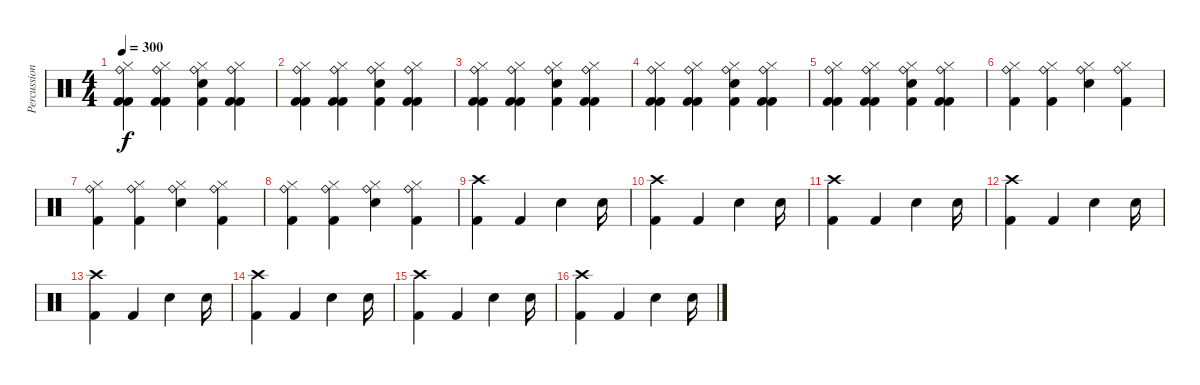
\track ("Percussion" "Percussion") {instrument percussion}
\staff {score}
\articulation defaults
\ts (4 4)
\tempo 300
\clef neutral
\ks c
("Ride (bell)" "Hi-Hat (closed)" "Kick (hit) 2" "Kick (hit) 2").4{dy f} ("Ride (bell)" "Hi-Hat (closed)" "Kick (hit) 2" "Kick (hit) 2").4 ("Ride (bell)" "Hi-Hat (closed)" "Kick (hit) 2" "Snare (hit) 2").4 ("Ride (bell)" "Hi-Hat (closed)" "Kick (hit) 2" "Kick (hit) 2").4 |
("Ride (bell)" "Hi-Hat (closed)" "Kick (hit) 2" "Kick (hit) 2").4 ("Ride (bell)" "Hi-Hat (closed)" "Kick (hit) 2" "Kick (hit) 2").4 ("Ride (bell)" "Hi-Hat (closed)" "Kick (hit) 2" "Snare (hit) 2").4 ("Ride (bell)" "Hi-Hat (closed)" "Kick (hit) 2" "Kick (hit) 2").4 |
("Ride (bell)" "Hi-Hat (closed)" "Kick (hit) 2" "Kick (hit) 2").4 ("Ride (bell)" "Hi-Hat (closed)" "Kick (hit) 2" "Kick (hit) 2").4 ("Ride (bell)" "Hi-Hat (closed)" "Kick (hit) 2" "Snare (hit) 2").4 ("Ride (bell)" "Hi-Hat (closed)" "Kick (hit) 2" "Kick (hit) 2").4 |
("Ride (bell)" "Hi-Hat (closed)" "Kick (hit) 2" "Kick (hit) 2").4 ("Ride (bell)" "Hi-Hat (closed)" "Kick (hit) 2" "Kick (hit) 2").4 ("Ride (bell)" "Hi-Hat (closed)" "Kick (hit) 2" "Snare (hit) 2").4 ("Ride (bell)" "Hi-Hat (closed)" "Kick (hit) 2" "Kick (hit) 2").4 |
("Ride (bell)" "Hi-Hat (closed)" "Kick (hit) 2" "Kick (hit) 2").4 ("Ride (bell)" "Hi-Hat (closed)" "Kick (hit) 2" "Kick (hit) 2").4 ("Ride (bell)" "Hi-Hat (closed)" "Kick (hit) 2" "Snare (hit) 2").4 ("Ride (bell)" "Hi-Hat (closed)" "Kick (hit) 2" "Kick (hit) 2").4 |
("Ride (bell)" "Hi-Hat (closed)" "Kick (hit) 2").4 ("Ride (bell)" "Hi-Hat (closed)" "Kick (hit) 2").4 ("Ride (bell)" "Hi-Hat (closed)" "Snare (hit) 2").4 ("Ride (bell)" "Hi-Hat (closed)" "Kick (hit) 2").4 |
("Ride (bell)" "Hi-Hat (closed)" "Kick (hit) 2").4 ("Ride (bell)" "Hi-Hat (closed)" "Kick (hit) 2").4 ("Ride (bell)" "Hi-Hat (closed)" "Snare (hit) 2").4 ("Ride (bell)" "Hi-Hat (closed)" "Kick (hit) 2").4 |
("Ride (bell)" "Hi-Hat (closed)" "Kick (hit) 2").4 ("Ride (bell)" "Hi-Hat (closed)" "Kick (hit) 2").4 ("Ride (bell)" "Hi-Hat (closed)" "Snare (hit) 2").4 ("Ride (bell)" "Hi-Hat (closed)" "Kick (hit) 2").4 |
("Crash high (hit)" "Kick (hit) 2").4 "Kick (hit) 2".4 "Snare (hit) 2".4 "Snare (hit) 2".16 |
("Crash high (hit)" "Kick (hit) 2").4 "Kick (hit) 2".4 "Snare (hit) 2".4 "Snare (hit) 2".16 |
("Crash high (hit)" "Kick (hit) 2").4 "Kick (hit) 2".4 "Snare (hit) 2".4 "Snare (hit) 2".16 |
("Crash high (hit)" "Kick (hit) 2").4 "Kick (hit) 2".4 "Snare (hit) 2".4 "Snare (hit) 2".16 |
("Crash high (hit)" "Kick (hit) 2").4 "Kick (hit) 2".4 "Snare (hit) 2".4 "Snare (hit) 2".16 |
("Crash high (hit)" "Kick (hit) 2").4 "Kick (hit) 2".4 "Snare (hit) 2".4 "Snare (hit) 2".16 |
("Crash high (hit)" "Kick (hit) 2").4 "Kick (hit) 2".4 "Snare (hit) 2".4 "Snare (hit) 2".16 |
("Crash high (hit)" "Kick (hit) 2").4 "Kick (hit) 2".4 "Snare (hit) 2".4 "Snare (hit) 2".16
